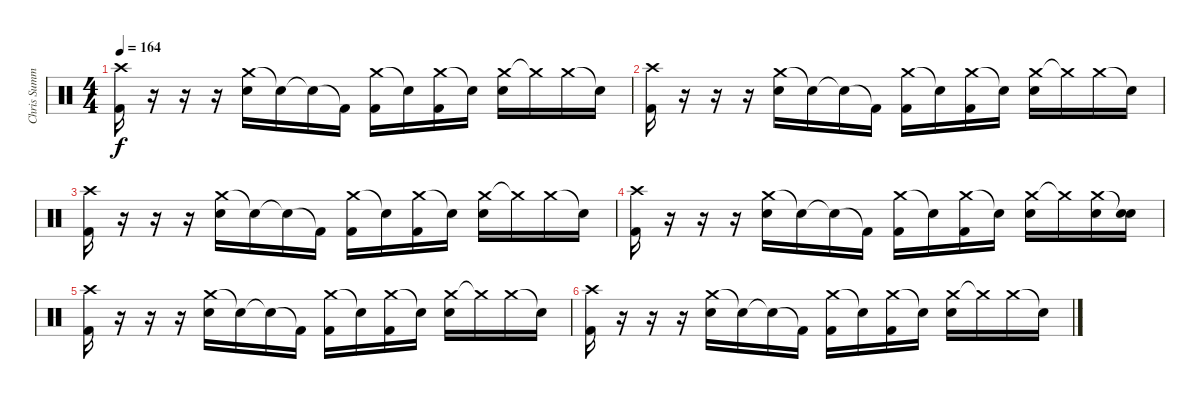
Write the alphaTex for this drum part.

\track ("Chris Summers" "Chris Summ") {instrument percussion}
\staff {score}
\articulation defaults
\ts (4 4)
\tempo 164
\clef neutral
\ks c
("Crash high (hit)" "Kick (hit) 2").16{dy f} r.16 r.16 r.16 ("Crash medium (hit)" "Snare (hit) 2").16 "Snare (hit)"{t}.16 "Snare (hit)"{t}.16 "Kick (hit) 2"{t}.16 ("Crash medium (hit)" "Kick (hit) 2").16 "Snare (hit)"{t}.16 ("Crash medium (hit)" "Kick (hit) 2").16 "Snare (hit)"{t}.16 ("Crash medium (hit)" "Snare (hit) 2").16 "Crash medium (hit)"{t}.16 "Crash medium (hit)".16 "Snare (hit)"{t}.16 |
("Crash high (hit)" "Kick (hit) 2").16 r.16 r.16 r.16 ("Crash medium (hit)" "Snare (hit) 2").16 "Snare (hit)"{t}.16 "Snare (hit)"{t}.16 "Kick (hit) 2"{t}.16 ("Crash medium (hit)" "Kick (hit) 2").16 "Snare (hit)"{t}.16 ("Crash medium (hit)" "Kick (hit) 2").16 "Snare (hit)"{t}.16 ("Crash medium (hit)" "Snare (hit) 2").16 "Crash medium (hit)"{t}.16 "Crash medium (hit)".16 "Snare (hit)"{t}.16 |
("Crash high (hit)" "Kick (hit) 2").16 r.16 r.16 r.16 ("Crash medium (hit)" "Snare (hit) 2").16 "Snare (hit)"{t}.16 "Snare (hit)"{t}.16 "Kick (hit) 2"{t}.16 ("Crash medium (hit)" "Kick (hit) 2").16 "Snare (hit)"{t}.16 ("Crash medium (hit)" "Kick (hit) 2").16 "Snare (hit)"{t}.16 ("Crash medium (hit)" "Snare (hit) 2").16 "Crash medium (hit)"{t}.16 "Crash medium (hit)".16 "Snare (hit)"{t}.16 |
("Crash high (hit)" "Kick (hit) 2").16 r.16 r.16 r.16 ("Crash medium (hit)" "Snare (hit) 2").16 "Snare (hit)"{t}.16 "Snare (hit)"{t}.16 "Kick (hit) 2"{t}.16 ("Crash medium (hit)" "Kick (hit) 2").16 "Snare (hit)"{t}.16 ("Crash medium (hit)" "Kick (hit) 2").16 "Snare (hit)"{t}.16 ("Crash medium (hit)" "Snare (hit) 2").16 "Crash medium (hit)"{t}.16 ("Crash medium (hit)" "Snare (hit) 2").16 ("Snare (hit)"{t} "Snare (hit) 2").16 |
("Crash high (hit)" "Kick (hit) 2").16 r.16 r.16 r.16 ("Crash medium (hit)" "Snare (hit) 2").16 "Snare (hit)"{t}.16 "Snare (hit)"{t}.16 "Kick (hit) 2"{t}.16 ("Crash medium (hit)" "Kick (hit) 2").16 "Snare (hit)"{t}.16 ("Crash medium (hit)" "Kick (hit) 2").16 "Snare (hit)"{t}.16 ("Crash medium (hit)" "Snare (hit) 2").16 "Crash medium (hit)"{t}.16 "Crash medium (hit)".16 "Snare (hit)"{t}.16 |
("Crash high (hit)" "Kick (hit) 2").16 r.16 r.16 r.16 ("Crash medium (hit)" "Snare (hit) 2").16 "Snare (hit)"{t}.16 "Snare (hit)"{t}.16 "Kick (hit) 2"{t}.16 ("Crash medium (hit)" "Kick (hit) 2").16 "Snare (hit)"{t}.16 ("Crash medium (hit)" "Kick (hit) 2").16 "Snare (hit)"{t}.16 ("Crash medium (hit)" "Snare (hit) 2").16 "Crash medium (hit)"{t}.16 "Crash medium (hit)".16 "Snare (hit)"{t}.16
